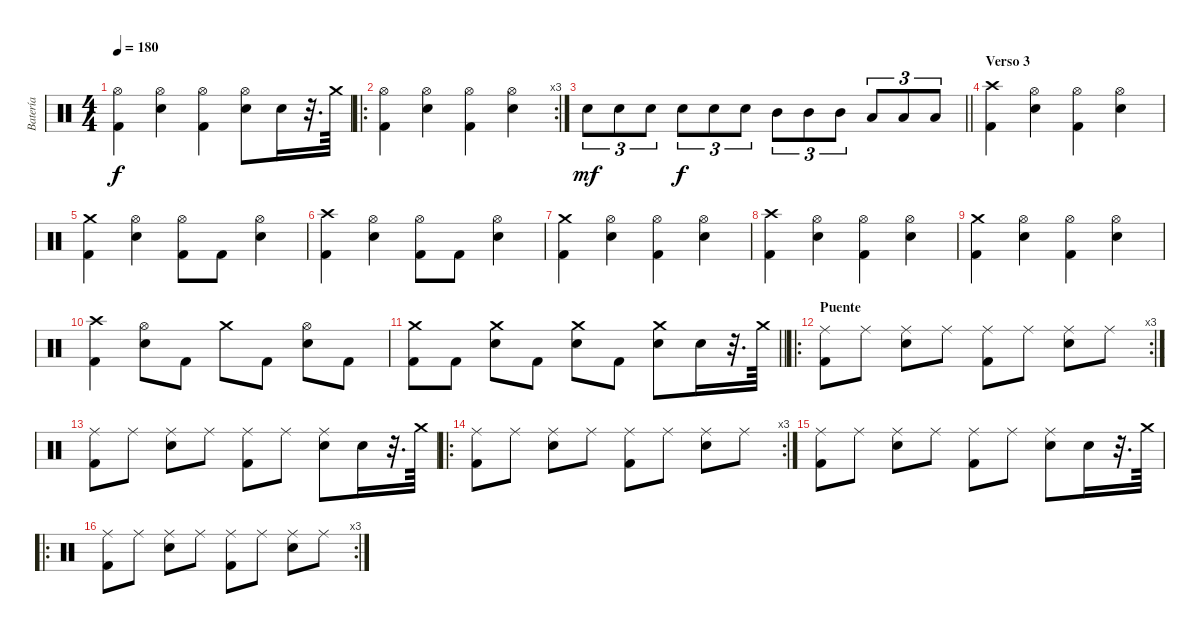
\track ("Batería" "Batería") {instrument percussion}
\staff {score}
\articulation defaults
\ts (4 4)
\tempo 180
\clef neutral
\ks c
("Hi-Hat (open)" "Kick (hit) 2").4{dy f} ("Hi-Hat (open)" "Snare (hit) 2").4 ("Hi-Hat (open)" "Kick (hit) 2").4 ("Hi-Hat (open)" "Snare (hit) 2").8 "Snare (hit) 2".16 r.32{d} "Crash medium (hit)".64 |
\ro
\rc 3
("Hi-Hat (open)" "Kick (hit) 2").4 ("Hi-Hat (open)" "Snare (hit) 2").4 ("Hi-Hat (open)" "Kick (hit) 2").4 ("Hi-Hat (open)" "Snare (hit) 2").4 |
\barLineRight lightlight "Snare (hit) 2".8{tu (3 2) dy mf} "Snare (hit) 2".8{tu (3 2)} "Snare (hit) 2".8{tu (3 2)} "Snare (hit) 2".8{tu (3 2) dy f} "Snare (hit) 2".8{tu (3 2)} "Snare (hit) 2".8{tu (3 2)} "Mid Tom (hit)".8{tu (3 2)} "Mid Tom (hit)".8{tu (3 2)} "Mid Tom (hit)".8{tu (3 2)} "Low Tom (hit)".8{tu (3 2)} "Low Tom (hit)".8{tu (3 2)} "Low Tom (hit)".8{tu (3 2)}
|
\section ("" "Verso 3")
("Crash high (hit)" "Kick (hit) 2").4 ("Hi-Hat (open)" "Snare (hit) 2").4 ("Hi-Hat (open)" "Kick (hit) 2").4 ("Hi-Hat (open)" "Snare (hit) 2").4 |
("Crash medium (hit)" "Kick (hit) 2").4 ("Hi-Hat (open)" "Snare (hit) 2").4 ("Hi-Hat (open)" "Kick (hit) 2").8 "Kick (hit) 2".8 ("Hi-Hat (open)" "Snare (hit) 2").4 |
("Crash high (hit)" "Kick (hit) 2").4 ("Hi-Hat (open)" "Snare (hit) 2").4 ("Hi-Hat (open)" "Kick (hit) 2").8 "Kick (hit) 2".8 ("Hi-Hat (open)" "Snare (hit) 2").4 |
("Crash medium (hit)" "Kick (hit) 2").4 ("Hi-Hat (open)" "Snare (hit) 2").4 ("Hi-Hat (open)" "Kick (hit) 2").4 ("Hi-Hat (open)" "Snare (hit) 2").4 |
("Crash high (hit)" "Kick (hit) 2").4 ("Hi-Hat (open)" "Snare (hit) 2").4 ("Hi-Hat (open)" "Kick (hit) 2").4 ("Hi-Hat (open)" "Snare (hit) 2").4 |
("Crash medium (hit)" "Kick (hit) 2").4 ("Hi-Hat (open)" "Snare (hit) 2").4 ("Hi-Hat (open)" "Kick (hit) 2").4 ("Hi-Hat (open)" "Snare (hit) 2").4 |
("Crash high (hit)" "Kick (hit) 2").4 ("Hi-Hat (open)" "Snare (hit) 2").8 "Kick (hit) 2".8 "Crash medium (hit)".8 "Kick (hit) 2".8 ("Hi-Hat (open)" "Snare (hit) 2").8 "Kick (hit) 2".8 |
\barLineRight lightlight
("Crash medium (hit)" "Kick (hit) 2").8 "Kick (hit) 2".8 ("Crash medium (hit)" "Snare (hit) 2").8 "Kick (hit) 2".8 ("Crash medium (hit)" "Snare (hit) 2").8 "Kick (hit) 2".8 ("Crash medium (hit)" "Snare (hit) 2").8 "Snare (hit) 2".16 r.32{d} "Crash medium (hit)".64 |
\ro
\rc 3
\section ("" "Puente")
("Ride (middle)" "Kick (hit) 2").8 "Ride (middle)".8 ("Ride (middle)" "Snare (hit) 2").8 "Ride (middle)".8 ("Ride (middle)" "Kick (hit) 2").8 "Ride (middle)".8 ("Ride (middle)" "Snare (hit) 2").8 "Ride (middle)".8 |
("Ride (middle)" "Kick (hit) 2").8 "Ride (middle)".8 ("Ride (middle)" "Snare (hit) 2").8 "Ride (middle)".8 ("Ride (middle)" "Kick (hit) 2").8 "Ride (middle)".8 ("Ride (middle)" "Snare (hit) 2").8 "Snare (hit) 2".16 r.32{d} "Crash medium (hit)".64 |
\ro
\rc 3
("Ride (middle)" "Kick (hit) 2").8 "Ride (middle)".8 ("Ride (middle)" "Snare (hit) 2").8 "Ride (middle)".8 ("Ride (middle)" "Kick (hit) 2").8 "Ride (middle)".8 ("Ride (middle)" "Snare (hit) 2").8 "Ride (middle)".8 |
("Ride (middle)" "Kick (hit) 2").8 "Ride (middle)".8 ("Ride (middle)" "Snare (hit) 2").8 "Ride (middle)".8 ("Ride (middle)" "Kick (hit) 2").8 "Ride (middle)".8 ("Ride (middle)" "Snare (hit) 2").8 "Snare (hit) 2".16 r.32{d} "Crash medium (hit)".64 |
\ro
\rc 3
("Ride (middle)" "Kick (hit) 2").8 "Ride (middle)".8 ("Ride (middle)" "Snare (hit) 2").8 "Ride (middle)".8 ("Ride (middle)" "Kick (hit) 2").8 "Ride (middle)".8 ("Ride (middle)" "Snare (hit) 2").8 "Ride (middle)".8
